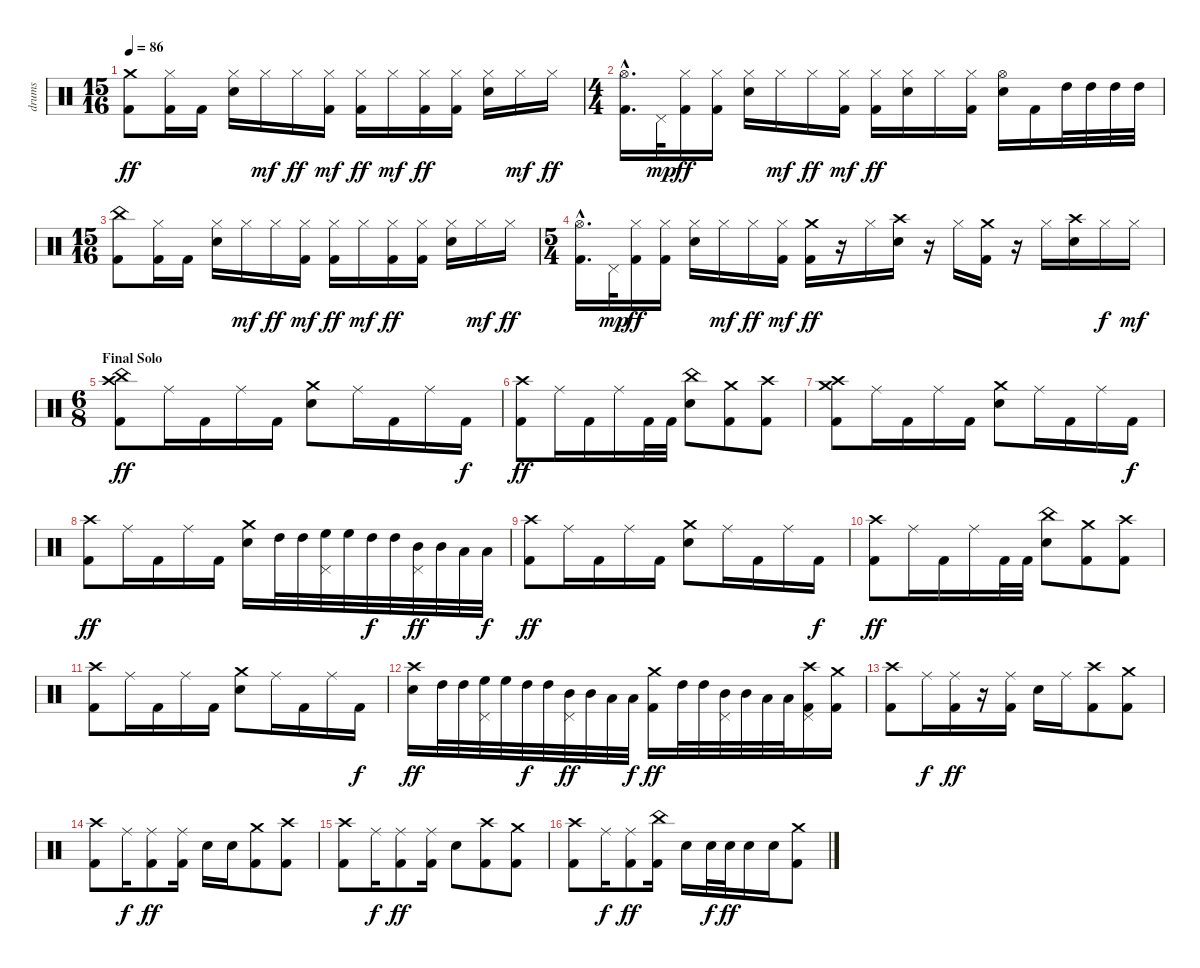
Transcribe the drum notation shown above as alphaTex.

\track ("drums" "drums") {instrument percussion}
\staff {score}
\articulation defaults
\ts (15 16)
\tempo 86
\clef neutral
\ks c
("Crash medium (hit)" "Kick (hit) 2").8{dy ff} ("Hi-Hat (closed)" "Kick (hit) 2").16 "Kick (hit) 2".16 ("Hi-Hat (closed)" "Snare (hit) 2").16 "Hi-Hat (closed)".16{dy mf} "Hi-Hat (closed)".16{dy ff} ("Hi-Hat (closed)" "Kick (hit) 2").16{dy mf} ("Hi-Hat (closed)" "Kick (hit) 2").16{dy ff} "Hi-Hat (closed)".16{dy mf} ("Hi-Hat (closed)" "Kick (hit) 2").16{dy ff} ("Hi-Hat (closed)" "Kick (hit) 2").16 ("Hi-Hat (closed)" "Snare (hit) 2").16 "Hi-Hat (closed)".16{dy mf} "Hi-Hat (closed)".16{dy ff} |
\ts (4 4)
("Hi-Hat (open)"{hac} "Kick (hit) 2"{hac}).16{d} "Pedal Hi-Hat (hit)".32{dy mp} ("Hi-Hat (closed)" "Kick (hit) 2").16{dy ff} ("Hi-Hat (closed)" "Kick (hit) 2").16 ("Hi-Hat (closed)" "Snare (hit) 2").16 "Hi-Hat (closed)".16{dy mf} "Hi-Hat (closed)".16{dy ff} ("Hi-Hat (closed)" "Kick (hit) 2").16{dy mf} ("Hi-Hat (closed)" "Kick (hit) 2").16{dy ff} ("Hi-Hat (closed)" "Snare (hit) 2").16 "Hi-Hat (closed)".16 ("Hi-Hat (closed)" "Kick (hit) 2").16 ("Hi-Hat (open)" "Snare (hit) 2").16 "Kick (hit) 2".16 "High Tom (hit)".32 "High Tom (hit)".32 "High Tom (hit)".32 "High Tom (hit)".32 |
\ts (15 16)
("China (hit)" "Kick (hit) 2").8 ("Hi-Hat (closed)" "Kick (hit) 2").16 "Kick (hit) 2".16 ("Hi-Hat (closed)" "Snare (hit) 2").16 "Hi-Hat (closed)".16{dy mf} "Hi-Hat (closed)".16{dy ff} ("Hi-Hat (closed)" "Kick (hit) 2").16{dy mf} ("Hi-Hat (closed)" "Kick (hit) 2").16{dy ff} "Hi-Hat (closed)".16{dy mf} ("Hi-Hat (closed)" "Kick (hit) 2").16{dy ff} ("Hi-Hat (closed)" "Kick (hit) 2").16 ("Hi-Hat (closed)" "Snare (hit) 2").16 "Hi-Hat (closed)".16{dy mf} "Hi-Hat (closed)".16{dy ff} |
\ts (5 4)
("Hi-Hat (open)"{hac} "Kick (hit) 2"{hac}).16{d} "Pedal Hi-Hat (hit)".32{dy mp} ("Hi-Hat (closed)" "Kick (hit) 2").16{dy ff} ("Hi-Hat (closed)" "Kick (hit) 2").16 ("Hi-Hat (closed)" "Snare (hit) 2").16 "Hi-Hat (closed)".16{dy mf} "Hi-Hat (closed)".16{dy ff} ("Hi-Hat (closed)" "Kick (hit) 2").16{dy mf} ("Crash medium (hit)" "Kick (hit) 2").16{dy ff} r.16 "Hi-Hat (closed)".16 ("Crash high (hit)" "Snare (hit) 2").16 r.16 "Hi-Hat (closed)".16 ("Crash medium (hit)" "Kick (hit) 2").16 r.16 "Hi-Hat (closed)".16 ("Crash high (hit)" "Snare (hit) 2").16 "Hi-Hat (closed)".16{dy f} "Hi-Hat (closed)".16{dy mf} |
\ts (6 8)
\section ("" "Final Solo")
("Crash high (hit)" "China (hit)" "Kick (hit) 2").8{dy ff} "Ride (middle)".16 "Kick (hit) 2".16 "Ride (middle)".16 "Kick (hit) 2".16 ("Crash medium (hit)" "Snare (hit) 2").8 "Ride (middle)".16 "Kick (hit) 2".16 "Ride (middle)".16 "Kick (hit) 2".16{dy f} |
("Crash high (hit)" "Kick (hit) 2").8{dy ff} "Ride (middle)".16 "Kick (hit) 2".16 "Ride (middle)".16 "Kick (hit) 2".32 "Kick (hit) 2".32 ("China (hit)" "Snare (hit) 2").8 ("Crash medium (hit)" "Kick (hit) 2").8 ("Crash high (hit)" "Kick (hit) 2").8 |
("Crash high (hit)" "Crash medium (hit)" "Kick (hit) 2").8 "Ride (middle)".16 "Kick (hit) 2".16 "Ride (middle)".16 "Kick (hit) 2".16 ("Crash medium (hit)" "Snare (hit) 2").8 "Ride (middle)".16 "Kick (hit) 2".16 "Ride (middle)".16 "Kick (hit) 2".16{dy f} |
("Crash high (hit)" "Kick (hit) 2").8{dy ff} "Ride (middle)".16 "Kick (hit) 2".16 "Ride (middle)".16 "Kick (hit) 2".16 ("Crash medium (hit)" "Snare (hit) 2").16 "High Tom (hit)".32 "High Tom (hit)".32 ("High Floor Tom (hit)" "Pedal Hi-Hat (hit)").32 "High Floor Tom (hit)".32 "High Tom (hit)".32{dy f} "High Tom (hit)".32 ("Mid Tom (hit)" "Pedal Hi-Hat (hit)").32{dy ff} "Mid Tom (hit)".32 "Low Tom (hit)".32 "Low Tom (hit)".32{dy f} |
("Crash high (hit)" "Kick (hit) 2").8{dy ff} "Ride (middle)".16 "Kick (hit) 2".16 "Ride (middle)".16 "Kick (hit) 2".16 ("Crash medium (hit)" "Snare (hit) 2").8 "Ride (middle)".16 "Kick (hit) 2".16 "Ride (middle)".16 "Kick (hit) 2".16{dy f} |
("Crash high (hit)" "Kick (hit) 2").8{dy ff} "Ride (middle)".16 "Kick (hit) 2".16 "Ride (middle)".16 "Kick (hit) 2".32 "Kick (hit) 2".32 ("China (hit)" "Snare (hit) 2").8 ("Crash medium (hit)" "Kick (hit) 2").8 ("Crash high (hit)" "Kick (hit) 2").8 |
("Crash high (hit)" "Kick (hit) 2").8 "Ride (middle)".16 "Kick (hit) 2".16 "Ride (middle)".16 "Kick (hit) 2".16 ("Crash medium (hit)" "Snare (hit) 2").8 "Ride (middle)".16 "Kick (hit) 2".16 "Ride (middle)".16 "Kick (hit) 2".16{dy f} |
("Crash high (hit)" "Snare (hit) 2").16{dy ff} "High Tom (hit)".32 "High Tom (hit)".32 ("High Floor Tom (hit)" "Pedal Hi-Hat (hit)").32 "High Floor Tom (hit)".32 "High Tom (hit)".32{dy f} "High Tom (hit)".32 ("Mid Tom (hit)" "Pedal Hi-Hat (hit)").32{dy ff} "Mid Tom (hit)".32 "Low Tom (hit)".32 "Low Tom (hit)".32{dy f} ("Crash medium (hit)" "Kick (hit) 2").16{dy ff} "High Tom (hit)".32 "High Tom (hit)".32 ("Mid Tom (hit)" "Pedal Hi-Hat (hit)").32 "Mid Tom (hit)".32 "Low Tom (hit)".32 "Low Tom (hit)".32 ("Crash high (hit)" "Kick (hit) 2" "Pedal Hi-Hat (hit)").16 ("Crash medium (hit)" "Kick (hit) 2").16 |
("Crash high (hit)" "Kick (hit) 2").8 "Ride (middle)".16{dy f} ("Ride (middle)" "Kick (hit) 2").16{dy ff} r.16 ("Ride (middle)" "Kick (hit) 2").16 "Snare (hit) 2".16 "Ride (middle)".16 ("Crash high (hit)" "Kick (hit) 2").8 ("Crash medium (hit)" "Kick (hit) 2").8 |
("Crash high (hit)" "Kick (hit) 2").8 "Ride (middle)".16{dy f} ("Ride (middle)" "Kick (hit) 2").8{dy ff} ("Ride (middle)" "Kick (hit) 2").16 "Snare (hit) 2".16 "Snare (hit) 2".16 ("Crash medium (hit)" "Kick (hit) 2").8 ("Crash high (hit)" "Kick (hit) 2").8 |
("Crash high (hit)" "Kick (hit) 2").8 "Ride (middle)".16{dy f} ("Ride (middle)" "Kick (hit) 2").8{dy ff} ("Ride (middle)" "Kick (hit) 2").16 "Snare (hit) 2".8 ("Crash high (hit)" "Kick (hit) 2").8 ("Crash medium (hit)" "Kick (hit) 2").8 |
("Crash high (hit)" "Kick (hit) 2").8 "Ride (middle)".16{dy f} ("Ride (middle)" "Kick (hit) 2").8{dy ff} ("China (hit)" "Kick (hit) 2").16 "Snare (hit) 2".16 "Snare (hit) 2".32{dy f} "Snare (hit) 2".32{dy ff} "Snare (hit) 2".16 "Snare (hit) 2".16 ("Crash medium (hit)" "Kick (hit) 2").8
